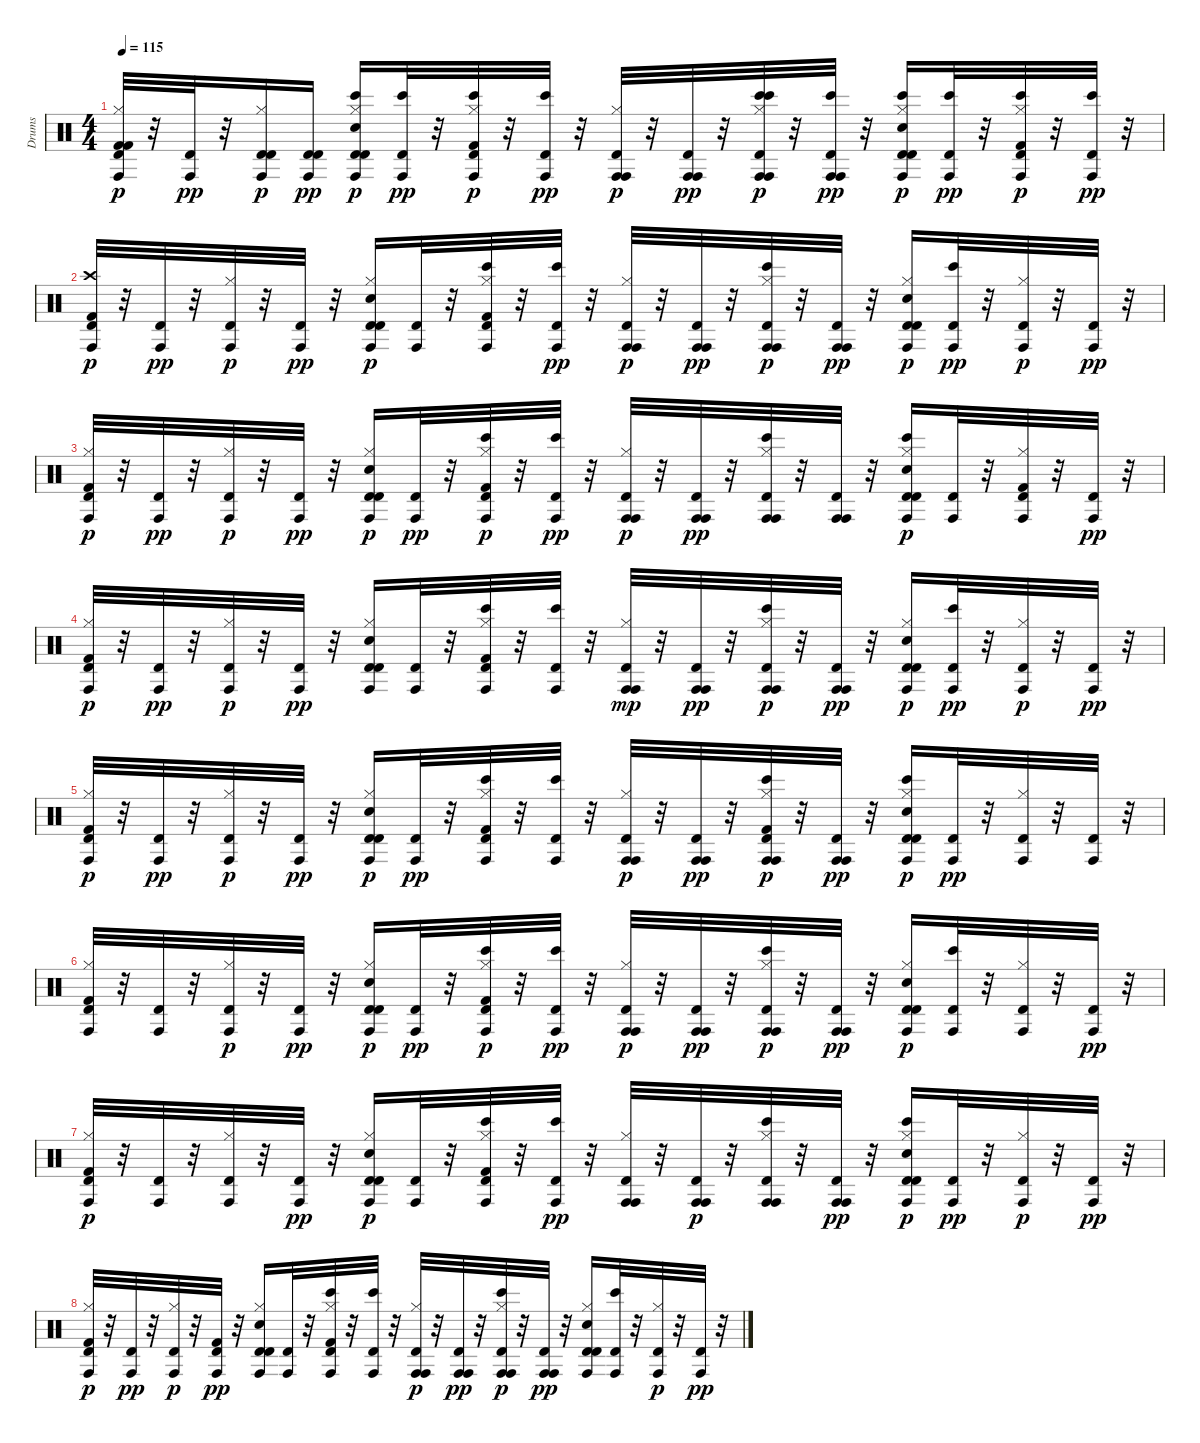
\track ("Drums" "Drums") {instrument percussion}
\staff {score}
\articulation defaults
\ts (4 4)
\tempo 115
\clef neutral
\ks c
("Conga high (hit)" "Kick (hit) 2" "Hi-Hat (closed)" "Kick (hit) 2" "Timbale high (hit)").32{dy p} r.32 ("Conga high (hit)" "Timbale high (hit)").32{dy pp} r.32 ("Conga high (hit)" "Timbale high (hit)" "Hi-Hat (closed)" "Timbale high (hit)").16{dy p} ("Conga high (hit)" "Timbale high (hit)" "Timbale high (hit)").16{dy pp} ("Conga high (hit)" "Timbale high (hit)" "Bongo High (hit)" "Hi-Hat (closed)" "Electric Snare (hit)" "Timbale high (hit)").16{dy p} ("Conga high (hit)" "Bongo High (hit)" "Timbale high (hit)").32{dy pp} r.32 ("Conga high (hit)" "Bongo High (hit)" "Hi-Hat (closed)" "Kick (hit) 2" "Timbale high (hit)").32{dy p} r.32 ("Conga high (hit)" "Bongo High (hit)" "Timbale high (hit)").32{dy pp} r.32 ("Conga high (hit)" "Conga high (hit)" "Hi-Hat (closed)" "Timbale high (hit)").32{dy p} r.32 ("Conga high (hit)" "Conga high (hit)" "Timbale high (hit)").32{dy pp} r.32 ("Conga high (hit)" "Conga high (hit)" "Bongo High (hit)" "Bongo High (hit)" "Hi-Hat (closed)" "Timbale high (hit)").32{dy p} r.32 ("Conga high (hit)" "Conga high (hit)" "Bongo High (hit)" "Timbale high (hit)").32{dy pp} r.32 ("Conga high (hit)" "Bongo High (hit)" "Timbale high (hit)" "Hi-Hat (closed)" "Electric Snare (hit)" "Timbale high (hit)").16{dy p} ("Conga high (hit)" "Bongo High (hit)" "Timbale high (hit)").32{dy pp} r.32 ("Conga high (hit)" "Bongo High (hit)" "Kick (hit) 2" "Hi-Hat (closed)" "Timbale high (hit)").32{dy p} r.32 ("Conga high (hit)" "Bongo High (hit)" "Timbale high (hit)").32{dy pp} r.32 |
("Conga high (hit)" "Crash high (hit)" "Kick (hit) 2" "Timbale high (hit)").32{dy p} r.32 ("Conga high (hit)" "Timbale high (hit)").32{dy pp} r.32 ("Conga high (hit)" "Hi-Hat (closed)" "Timbale high (hit)").32{dy p} r.32 ("Conga high (hit)" "Timbale high (hit)").32{dy pp} r.32 ("Conga high (hit)" "Timbale high (hit)" "Hi-Hat (closed)" "Electric Snare (hit)" "Timbale high (hit)").16{dy p} ("Conga high (hit)" "Timbale high (hit)").32 r.32 ("Conga high (hit)" "Bongo High (hit)" "Hi-Hat (closed)" "Kick (hit) 2" "Timbale high (hit)").32 r.32 ("Conga high (hit)" "Bongo High (hit)" "Timbale high (hit)").32{dy pp} r.32 ("Conga high (hit)" "Conga high (hit)" "Hi-Hat (closed)" "Timbale high (hit)").32{dy p} r.32 ("Conga high (hit)" "Conga high (hit)" "Timbale high (hit)").32{dy pp} r.32 ("Conga high (hit)" "Conga high (hit)" "Bongo High (hit)" "Hi-Hat (closed)" "Timbale high (hit)").32{dy p} r.32 ("Conga high (hit)" "Conga high (hit)" "Timbale high (hit)").32{dy pp} r.32 ("Conga high (hit)" "Timbale high (hit)" "Hi-Hat (closed)" "Electric Snare (hit)" "Timbale high (hit)").16{dy p} ("Conga high (hit)" "Bongo High (hit)" "Timbale high (hit)").32{dy pp} r.32 ("Conga high (hit)" "Hi-Hat (closed)" "Timbale high (hit)").32{dy p} r.32 ("Conga high (hit)" "Timbale high (hit)").32{dy pp} r.32 |
("Conga high (hit)" "Hi-Hat (closed)" "Kick (hit) 2" "Timbale high (hit)").32{dy p} r.32 ("Conga high (hit)" "Timbale high (hit)").32{dy pp} r.32 ("Conga high (hit)" "Hi-Hat (closed)" "Timbale high (hit)").32{dy p} r.32 ("Conga high (hit)" "Timbale high (hit)").32{dy pp} r.32 ("Conga high (hit)" "Timbale high (hit)" "Hi-Hat (closed)" "Electric Snare (hit)" "Timbale high (hit)").16{dy p} ("Conga high (hit)" "Timbale high (hit)").32{dy pp} r.32 ("Conga high (hit)" "Bongo High (hit)" "Hi-Hat (closed)" "Kick (hit) 2" "Timbale high (hit)").32{dy p} r.32 ("Conga high (hit)" "Bongo High (hit)" "Timbale high (hit)").32{dy pp} r.32 ("Conga high (hit)" "Conga high (hit)" "Hi-Hat (closed)" "Timbale high (hit)").32{dy p} r.32 ("Conga high (hit)" "Conga high (hit)" "Timbale high (hit)").32{dy pp} r.32 ("Conga high (hit)" "Conga high (hit)" "Bongo High (hit)" "Hi-Hat (closed)" "Timbale high (hit)").32 r.32 ("Conga high (hit)" "Conga high (hit)" "Timbale high (hit)").32 r.32 ("Conga high (hit)" "Bongo High (hit)" "Timbale high (hit)" "Hi-Hat (closed)" "Electric Snare (hit)" "Timbale high (hit)").16{dy p} ("Conga high (hit)" "Timbale high (hit)").32 r.32 ("Conga high (hit)" "Kick (hit) 2" "Hi-Hat (closed)" "Timbale high (hit)").32 r.32 ("Conga high (hit)" "Timbale high (hit)").32{dy pp} r.32 |
("Conga high (hit)" "Hi-Hat (closed)" "Kick (hit) 2" "Timbale high (hit)").32{dy p} r.32 ("Conga high (hit)" "Timbale high (hit)").32{dy pp} r.32 ("Conga high (hit)" "Hi-Hat (closed)" "Timbale high (hit)").32{dy p} r.32 ("Conga high (hit)" "Timbale high (hit)").32{dy pp} r.32 ("Conga high (hit)" "Timbale high (hit)" "Hi-Hat (closed)" "Electric Snare (hit)" "Timbale high (hit)").16 ("Conga high (hit)" "Timbale high (hit)").32 r.32 ("Conga high (hit)" "Bongo High (hit)" "Hi-Hat (closed)" "Kick (hit) 2" "Timbale high (hit)").32 r.32 ("Conga high (hit)" "Bongo High (hit)" "Timbale high (hit)").32 r.32 ("Conga high (hit)" "Conga high (hit)" "Hi-Hat (closed)" "Timbale high (hit)").32{dy mp} r.32 ("Conga high (hit)" "Conga high (hit)" "Timbale high (hit)").32{dy pp} r.32 ("Conga high (hit)" "Conga high (hit)" "Bongo High (hit)" "Hi-Hat (closed)" "Timbale high (hit)").32{dy p} r.32 ("Conga high (hit)" "Conga high (hit)" "Timbale high (hit)").32{dy pp} r.32 ("Conga high (hit)" "Timbale high (hit)" "Hi-Hat (closed)" "Electric Snare (hit)" "Timbale high (hit)").16{dy p} ("Conga high (hit)" "Bongo High (hit)" "Timbale high (hit)").32{dy pp} r.32 ("Conga high (hit)" "Hi-Hat (closed)" "Timbale high (hit)").32{dy p} r.32 ("Conga high (hit)" "Timbale high (hit)").32{dy pp} r.32 |
("Conga high (hit)" "Hi-Hat (closed)" "Kick (hit) 2" "Timbale high (hit)").32{dy p} r.32 ("Conga high (hit)" "Timbale high (hit)").32{dy pp} r.32 ("Conga high (hit)" "Hi-Hat (closed)" "Timbale high (hit)").32{dy p} r.32 ("Conga high (hit)" "Timbale high (hit)").32{dy pp} r.32 ("Conga high (hit)" "Timbale high (hit)" "Hi-Hat (closed)" "Electric Snare (hit)" "Timbale high (hit)").16{dy p} ("Conga high (hit)" "Timbale high (hit)").32{dy pp} r.32 ("Conga high (hit)" "Bongo High (hit)" "Hi-Hat (closed)" "Kick (hit) 2" "Timbale high (hit)").32 r.32 ("Conga high (hit)" "Bongo High (hit)" "Timbale high (hit)").32 r.32 ("Conga high (hit)" "Conga high (hit)" "Hi-Hat (closed)" "Timbale high (hit)").32{dy p} r.32 ("Conga high (hit)" "Conga high (hit)" "Timbale high (hit)").32{dy pp} r.32 ("Conga high (hit)" "Conga high (hit)" "Bongo High (hit)" "Kick (hit) 2" "Hi-Hat (closed)" "Timbale high (hit)").32{dy p} r.32 ("Conga high (hit)" "Conga high (hit)" "Timbale high (hit)").32{dy pp} r.32 ("Conga high (hit)" "Bongo High (hit)" "Timbale high (hit)" "Hi-Hat (closed)" "Electric Snare (hit)" "Timbale high (hit)").16{dy p} ("Conga high (hit)" "Timbale high (hit)").32{dy pp} r.32 ("Conga high (hit)" "Hi-Hat (closed)" "Timbale high (hit)").32 r.32 ("Conga high (hit)" "Timbale high (hit)").32 r.32 |
("Conga high (hit)" "Hi-Hat (closed)" "Kick (hit) 2" "Timbale high (hit)").32 r.32 ("Conga high (hit)" "Timbale high (hit)").32 r.32 ("Conga high (hit)" "Hi-Hat (closed)" "Timbale high (hit)").32{dy p} r.32 ("Conga high (hit)" "Timbale high (hit)").32{dy pp} r.32 ("Conga high (hit)" "Timbale high (hit)" "Hi-Hat (closed)" "Electric Snare (hit)" "Timbale high (hit)").16{dy p} ("Conga high (hit)" "Timbale high (hit)").32{dy pp} r.32 ("Conga high (hit)" "Bongo High (hit)" "Hi-Hat (closed)" "Kick (hit) 2" "Timbale high (hit)").32{dy p} r.32 ("Conga high (hit)" "Bongo High (hit)" "Timbale high (hit)").32{dy pp} r.32 ("Conga high (hit)" "Conga high (hit)" "Hi-Hat (closed)" "Timbale high (hit)").32{dy p} r.32 ("Conga high (hit)" "Conga high (hit)" "Timbale high (hit)").32{dy pp} r.32 ("Conga high (hit)" "Conga high (hit)" "Bongo High (hit)" "Hi-Hat (closed)" "Timbale high (hit)").32{dy p} r.32 ("Conga high (hit)" "Conga high (hit)" "Timbale high (hit)").32{dy pp} r.32 ("Conga high (hit)" "Timbale high (hit)" "Hi-Hat (closed)" "Electric Snare (hit)" "Timbale high (hit)").16{dy p} ("Conga high (hit)" "Bongo High (hit)" "Timbale high (hit)").32 r.32 ("Conga high (hit)" "Hi-Hat (closed)" "Timbale high (hit)").32 r.32 ("Conga high (hit)" "Timbale high (hit)").32{dy pp} r.32 |
("Conga high (hit)" "Hi-Hat (closed)" "Kick (hit) 2" "Timbale high (hit)").32{dy p} r.32 ("Conga high (hit)" "Timbale high (hit)").32 r.32 ("Conga high (hit)" "Hi-Hat (closed)" "Timbale high (hit)").32 r.32 ("Conga high (hit)" "Timbale high (hit)").32{dy pp} r.32 ("Conga high (hit)" "Timbale high (hit)" "Hi-Hat (closed)" "Electric Snare (hit)" "Timbale high (hit)").16{dy p} ("Conga high (hit)" "Timbale high (hit)").32 r.32 ("Conga high (hit)" "Bongo High (hit)" "Hi-Hat (closed)" "Kick (hit) 2" "Timbale high (hit)").32 r.32 ("Conga high (hit)" "Bongo High (hit)" "Timbale high (hit)").32{dy pp} r.32 ("Conga high (hit)" "Conga high (hit)" "Hi-Hat (closed)" "Timbale high (hit)").32 r.32 ("Conga high (hit)" "Conga high (hit)" "Timbale high (hit)").32{dy p} r.32 ("Conga high (hit)" "Conga high (hit)" "Bongo High (hit)" "Hi-Hat (closed)" "Timbale high (hit)").32 r.32 ("Conga high (hit)" "Conga high (hit)" "Timbale high (hit)").32{dy pp} r.32 ("Conga high (hit)" "Bongo High (hit)" "Timbale high (hit)" "Hi-Hat (closed)" "Electric Snare (hit)" "Timbale high (hit)").16{dy p} ("Conga high (hit)" "Timbale high (hit)").32{dy pp} r.32 ("Conga high (hit)" "Hi-Hat (closed)" "Timbale high (hit)").32{dy p} r.32 ("Conga high (hit)" "Timbale high (hit)").32{dy pp} r.32 |
("Conga high (hit)" "Hi-Hat (closed)" "Kick (hit) 2" "Timbale high (hit)").32{dy p} r.32 ("Conga high (hit)" "Timbale high (hit)").32{dy pp} r.32 ("Conga high (hit)" "Hi-Hat (closed)" "Timbale high (hit)").32{dy p} r.32 ("Conga high (hit)" "Kick (hit) 2" "Timbale high (hit)").32{dy pp} r.32 ("Conga high (hit)" "Timbale high (hit)" "Hi-Hat (closed)" "Electric Snare (hit)" "Timbale high (hit)").16 ("Conga high (hit)" "Timbale high (hit)").32 r.32 ("Conga high (hit)" "Bongo High (hit)" "Hi-Hat (closed)" "Kick (hit) 2" "Timbale high (hit)").32 r.32 ("Conga high (hit)" "Bongo High (hit)" "Timbale high (hit)").32 r.32 ("Conga high (hit)" "Conga high (hit)" "Hi-Hat (closed)" "Timbale high (hit)").32{dy p} r.32 ("Conga high (hit)" "Conga high (hit)" "Timbale high (hit)").32{dy pp} r.32 ("Conga high (hit)" "Conga high (hit)" "Bongo High (hit)" "Hi-Hat (closed)" "Timbale high (hit)").32{dy p} r.32 ("Conga high (hit)" "Conga high (hit)" "Timbale high (hit)").32{dy pp} r.32 ("Conga high (hit)" "Timbale high (hit)" "Hi-Hat (closed)" "Electric Snare (hit)" "Timbale high (hit)").16 ("Conga high (hit)" "Bongo High (hit)" "Timbale high (hit)").32 r.32 ("Conga high (hit)" "Hi-Hat (closed)" "Timbale high (hit)").32{dy p} r.32 ("Conga high (hit)" "Timbale high (hit)").32{dy pp} r.32
